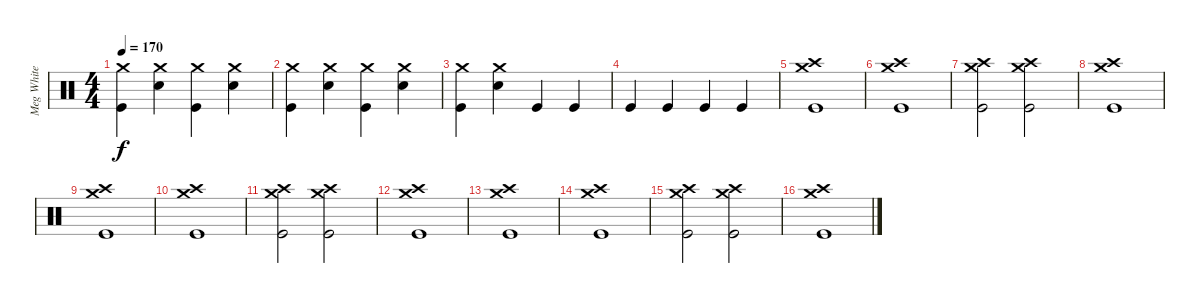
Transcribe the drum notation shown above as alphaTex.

\track ("Meg White" "Meg White") {instrument percussion}
\staff {score}
\articulation defaults
\ts (4 4)
\tempo 170
\clef neutral
\ks c
("Kick (hit)" "Crash medium (hit)").4{dy f} ("Snare (hit) 2" "Crash medium (hit)").4 ("Kick (hit)" "Crash medium (hit)").4 ("Snare (hit) 2" "Crash medium (hit)").4 |
("Kick (hit)" "Crash medium (hit)").4 ("Snare (hit) 2" "Crash medium (hit)").4 ("Kick (hit)" "Crash medium (hit)").4 ("Snare (hit) 2" "Crash medium (hit)").4 |
("Kick (hit)" "Crash medium (hit)").4 ("Snare (hit) 2" "Crash medium (hit)").4 "Kick (hit)".4 "Kick (hit)".4 |
"Kick (hit)".4 "Kick (hit)".4 "Kick (hit)".4 "Kick (hit)".4 |
("Kick (hit)" "Crash high (hit)" "Crash medium (hit)").1 |
("Kick (hit)" "Crash high (hit)" "Crash medium (hit)").1 |
("Kick (hit)" "Crash high (hit)" "Crash medium (hit)").2 ("Kick (hit)" "Crash high (hit)" "Crash medium (hit)").2 |
("Kick (hit)" "Crash high (hit)" "Crash medium (hit)").1 |
("Kick (hit)" "Crash high (hit)" "Crash medium (hit)").1 |
("Kick (hit)" "Crash high (hit)" "Crash medium (hit)").1 |
("Kick (hit)" "Crash high (hit)" "Crash medium (hit)").2 ("Kick (hit)" "Crash high (hit)" "Crash medium (hit)").2 |
("Kick (hit)" "Crash high (hit)" "Crash medium (hit)").1 |
("Kick (hit)" "Crash high (hit)" "Crash medium (hit)").1 |
("Kick (hit)" "Crash high (hit)" "Crash medium (hit)").1 |
("Kick (hit)" "Crash high (hit)" "Crash medium (hit)").2 ("Kick (hit)" "Crash high (hit)" "Crash medium (hit)").2 |
("Kick (hit)" "Crash high (hit)" "Crash medium (hit)").1
